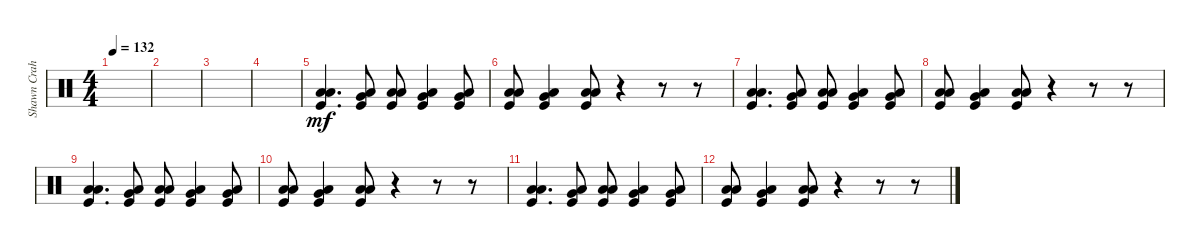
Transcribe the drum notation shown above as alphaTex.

\track ("Shawn Crahan" "Shawn Crah") {instrument percussion}
\staff {score}
\articulation defaults
\ts (4 4)
\tempo 132
\clef neutral
\ks c
|
|
|
|
("Low Floor Tom (hit)" "Kick (hit)" "Low Tom (hit)").4{d dy mf} ("Low Floor Tom (hit)" "Kick (hit)" "Very Low Tom (hit)").8 ("Low Floor Tom (hit)" "Kick (hit)" "Low Tom (hit)").8 ("Low Floor Tom (hit)" "Kick (hit)" "Very Low Tom (hit)").4 ("Low Floor Tom (hit)" "Kick (hit)" "Very Low Tom (hit)").8 |
("Low Floor Tom (hit)" "Kick (hit)" "Low Tom (hit)").8 ("Low Floor Tom (hit)" "Kick (hit)" "Very Low Tom (hit)").4 ("Low Floor Tom (hit)" "Kick (hit)" "Low Tom (hit)").8 r.4 r.8 r.8 |
("Low Floor Tom (hit)" "Kick (hit)" "Low Tom (hit)").4{d} ("Low Floor Tom (hit)" "Kick (hit)" "Very Low Tom (hit)").8 ("Low Floor Tom (hit)" "Kick (hit)" "Low Tom (hit)").8 ("Low Floor Tom (hit)" "Kick (hit)" "Very Low Tom (hit)").4 ("Low Floor Tom (hit)" "Kick (hit)" "Very Low Tom (hit)").8 |
("Low Floor Tom (hit)" "Kick (hit)" "Low Tom (hit)").8 ("Low Floor Tom (hit)" "Kick (hit)" "Very Low Tom (hit)").4 ("Low Floor Tom (hit)" "Kick (hit)" "Low Tom (hit)").8 r.4 r.8 r.8 |
("Low Floor Tom (hit)" "Kick (hit)" "Low Tom (hit)").4{d} ("Low Floor Tom (hit)" "Kick (hit)" "Very Low Tom (hit)").8 ("Low Floor Tom (hit)" "Kick (hit)" "Low Tom (hit)").8 ("Low Floor Tom (hit)" "Kick (hit)" "Very Low Tom (hit)").4 ("Low Floor Tom (hit)" "Kick (hit)" "Very Low Tom (hit)").8 |
("Low Floor Tom (hit)" "Kick (hit)" "Low Tom (hit)").8 ("Low Floor Tom (hit)" "Kick (hit)" "Very Low Tom (hit)").4 ("Low Floor Tom (hit)" "Kick (hit)" "Low Tom (hit)").8 r.4 r.8 r.8 |
("Low Floor Tom (hit)" "Kick (hit)" "Low Tom (hit)").4{d} ("Low Floor Tom (hit)" "Kick (hit)" "Very Low Tom (hit)").8 ("Low Floor Tom (hit)" "Kick (hit)" "Low Tom (hit)").8 ("Low Floor Tom (hit)" "Kick (hit)" "Very Low Tom (hit)").4 ("Low Floor Tom (hit)" "Kick (hit)" "Very Low Tom (hit)").8 |
("Low Floor Tom (hit)" "Kick (hit)" "Low Tom (hit)").8 ("Low Floor Tom (hit)" "Kick (hit)" "Very Low Tom (hit)").4 ("Low Floor Tom (hit)" "Kick (hit)" "Low Tom (hit)").8 r.4 r.8 r.8
